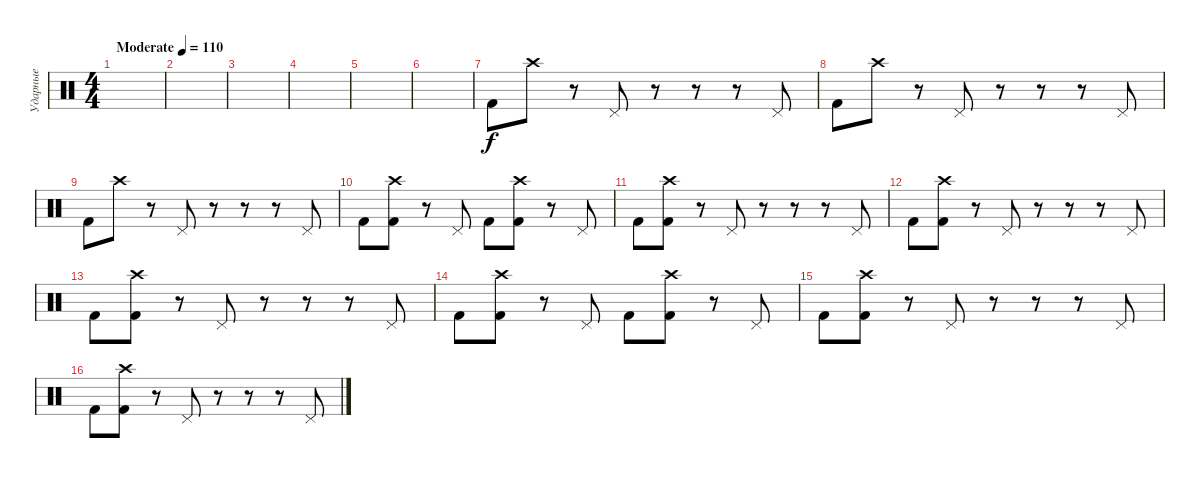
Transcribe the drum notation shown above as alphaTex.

\track ("Ударные" "Ударные") {instrument percussion}
\staff {score}
\articulation defaults
\ts (4 4)
\tempo (110 "Moderate")
\clef neutral
\ks c
|
|
|
|
|
|
"Kick (hit) 2".8 "Crash high (hit)".8 r.8 "Pedal Hi-Hat (hit)".8 r.8 r.8 r.8 "Pedal Hi-Hat (hit)".8 |
"Kick (hit) 2".8 "Crash high (hit)".8 r.8 "Pedal Hi-Hat (hit)".8 r.8 r.8 r.8 "Pedal Hi-Hat (hit)".8 |
"Kick (hit) 2".8 "Crash high (hit)".8 r.8 "Pedal Hi-Hat (hit)".8 r.8 r.8 r.8 "Pedal Hi-Hat (hit)".8 |
"Kick (hit) 2".8 ("Crash high (hit)" "Kick (hit) 2").8 r.8 "Pedal Hi-Hat (hit)".8 "Kick (hit) 2".8 ("Crash high (hit)" "Kick (hit) 2").8 r.8 "Pedal Hi-Hat (hit)".8 |
"Kick (hit) 2".8 ("Crash high (hit)" "Kick (hit) 2").8 r.8 "Pedal Hi-Hat (hit)".8 r.8 r.8 r.8 "Pedal Hi-Hat (hit)".8 |
"Kick (hit) 2".8 ("Crash high (hit)" "Kick (hit) 2").8 r.8 "Pedal Hi-Hat (hit)".8 r.8 r.8 r.8 "Pedal Hi-Hat (hit)".8 |
"Kick (hit) 2".8 ("Crash high (hit)" "Kick (hit) 2").8 r.8 "Pedal Hi-Hat (hit)".8 r.8 r.8 r.8 "Pedal Hi-Hat (hit)".8 |
"Kick (hit) 2".8 ("Crash high (hit)" "Kick (hit) 2").8 r.8 "Pedal Hi-Hat (hit)".8 "Kick (hit) 2".8 ("Crash high (hit)" "Kick (hit) 2").8 r.8 "Pedal Hi-Hat (hit)".8 |
"Kick (hit) 2".8 ("Crash high (hit)" "Kick (hit) 2").8 r.8 "Pedal Hi-Hat (hit)".8 r.8 r.8 r.8 "Pedal Hi-Hat (hit)".8 |
"Kick (hit) 2".8 ("Crash high (hit)" "Kick (hit) 2").8 r.8 "Pedal Hi-Hat (hit)".8 r.8 r.8 r.8 "Pedal Hi-Hat (hit)".8
